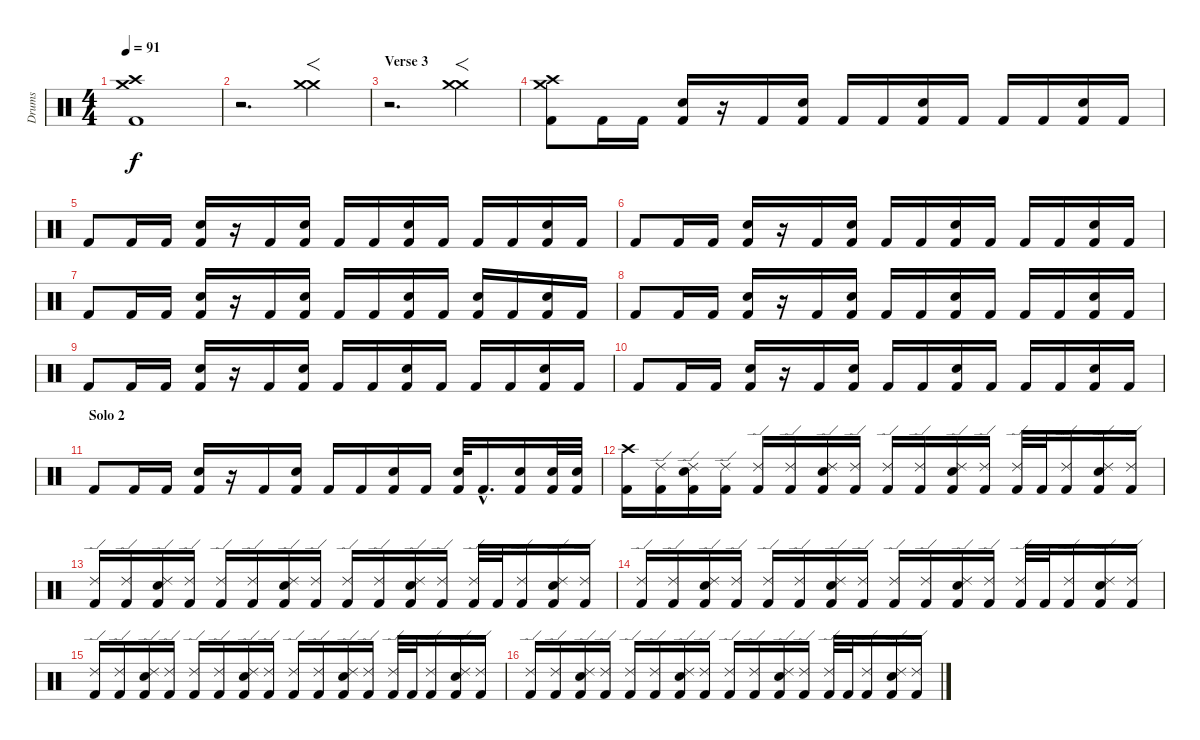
\track ("Drums" "Drums") {instrument percussion}
\staff {score}
\articulation defaults
\ts (4 4)
\tempo 91
\clef neutral
\ks c
("Crash medium (hit)" "Crash high (hit)" "Kick (hit) 2").1{dy f} |
r.2{d} ("Crash medium (hit)" "Crash medium (hit)").4{f} |
\section ("" "Verse 3")
r.2{d} ("Crash medium (hit)" "Crash medium (hit)").4{f} |
("Crash medium (hit)" "Crash high (hit)" "Kick (hit) 2").8 "Kick (hit) 2".16 "Kick (hit) 2".16 ("Snare (hit) 2" "Kick (hit) 2").16 r.16 "Kick (hit) 2".16 ("Snare (hit) 2" "Kick (hit) 2").16 "Kick (hit) 2".16 "Kick (hit) 2".16 ("Snare (hit) 2" "Kick (hit) 2").16 "Kick (hit) 2".16 "Kick (hit) 2".16 "Kick (hit) 2".16 ("Snare (hit) 2" "Kick (hit) 2").16 "Kick (hit) 2".16 |
"Kick (hit) 2".8 "Kick (hit) 2".16 "Kick (hit) 2".16 ("Snare (hit) 2" "Kick (hit) 2").16 r.16 "Kick (hit) 2".16 ("Snare (hit) 2" "Kick (hit) 2").16 "Kick (hit) 2".16 "Kick (hit) 2".16 ("Snare (hit) 2" "Kick (hit) 2").16 "Kick (hit) 2".16 "Kick (hit) 2".16 "Kick (hit) 2".16 ("Snare (hit) 2" "Kick (hit) 2").16 "Kick (hit) 2".16 |
"Kick (hit) 2".8 "Kick (hit) 2".16 "Kick (hit) 2".16 ("Snare (hit) 2" "Kick (hit) 2").16 r.16 "Kick (hit) 2".16 ("Snare (hit) 2" "Kick (hit) 2").16 "Kick (hit) 2".16 "Kick (hit) 2".16 ("Snare (hit) 2" "Kick (hit) 2").16 "Kick (hit) 2".16 "Kick (hit) 2".16 "Kick (hit) 2".16 ("Snare (hit) 2" "Kick (hit) 2").16 "Kick (hit) 2".16 |
"Kick (hit) 2".8 "Kick (hit) 2".16 "Kick (hit) 2".16 ("Snare (hit) 2" "Kick (hit) 2").16 r.16 "Kick (hit) 2".16 ("Snare (hit) 2" "Kick (hit) 2").16 "Kick (hit) 2".16 "Kick (hit) 2".16 ("Snare (hit) 2" "Kick (hit) 2").16 "Kick (hit) 2".16 ("Snare (hit) 2" "Kick (hit) 2").16 "Kick (hit) 2".16 ("Snare (hit) 2" "Kick (hit) 2").16 "Kick (hit) 2".16 |
"Kick (hit) 2".8 "Kick (hit) 2".16 "Kick (hit) 2".16 ("Snare (hit) 2" "Kick (hit) 2").16 r.16 "Kick (hit) 2".16 ("Snare (hit) 2" "Kick (hit) 2").16 "Kick (hit) 2".16 "Kick (hit) 2".16 ("Snare (hit) 2" "Kick (hit) 2").16 "Kick (hit) 2".16 "Kick (hit) 2".16 "Kick (hit) 2".16 ("Snare (hit) 2" "Kick (hit) 2").16 "Kick (hit) 2".16 |
"Kick (hit) 2".8 "Kick (hit) 2".16 "Kick (hit) 2".16 ("Snare (hit) 2" "Kick (hit) 2").16 r.16 "Kick (hit) 2".16 ("Snare (hit) 2" "Kick (hit) 2").16 "Kick (hit) 2".16 "Kick (hit) 2".16 ("Snare (hit) 2" "Kick (hit) 2").16 "Kick (hit) 2".16 "Kick (hit) 2".16 "Kick (hit) 2".16 ("Snare (hit) 2" "Kick (hit) 2").16 "Kick (hit) 2".16 |
"Kick (hit) 2".8 "Kick (hit) 2".16 "Kick (hit) 2".16 ("Snare (hit) 2" "Kick (hit) 2").16 r.16 "Kick (hit) 2".16 ("Snare (hit) 2" "Kick (hit) 2").16 "Kick (hit) 2".16 "Kick (hit) 2".16 ("Snare (hit) 2" "Kick (hit) 2").16 "Kick (hit) 2".16 "Kick (hit) 2".16 "Kick (hit) 2".16 ("Snare (hit) 2" "Kick (hit) 2").16 "Kick (hit) 2".16 |
\section ("" "Solo 2")
"Kick (hit) 2".8 "Kick (hit) 2".16 "Kick (hit) 2".16 ("Snare (hit) 2" "Kick (hit) 2").16 r.16 "Kick (hit) 2".16 ("Snare (hit) 2" "Kick (hit) 2").16 "Kick (hit) 2".16 "Kick (hit) 2".16 ("Snare (hit) 2" "Kick (hit) 2").16 "Kick (hit) 2".16 ("Snare (hit) 2" "Kick (hit) 2").32 "Kick (hit) 2"{hac}.16{d} ("Snare (hit) 2" "Kick (hit) 2").16 ("Snare (hit) 2" "Kick (hit) 2").32 ("Snare (hit) 2" "Kick (hit) 2").32 |
("Crash high (hit)" "Kick (hit) 2").16 ("Ride (edge) 2" "Kick (hit) 2").16 ("Ride (edge) 2" "Snare (hit) 2" "Kick (hit) 2").16 ("Ride (edge) 2" "Kick (hit) 2").16 ("Ride (edge) 2" "Kick (hit) 2").16 ("Ride (edge) 2" "Kick (hit) 2").16 ("Ride (edge) 2" "Snare (hit) 2" "Kick (hit) 2").16 ("Ride (edge) 2" "Kick (hit) 2").16 ("Ride (edge) 2" "Kick (hit) 2").16 ("Ride (edge) 2" "Kick (hit) 2").16 ("Ride (edge) 2" "Snare (hit) 2" "Kick (hit) 2").16 ("Ride (edge) 2" "Kick (hit) 2").16 ("Ride (edge) 2" "Kick (hit) 2").32 "Kick (hit) 2".32 ("Ride (edge) 2" "Kick (hit) 2").16 ("Ride (edge) 2" "Snare (hit) 2" "Kick (hit) 2").16 ("Ride (edge) 2" "Kick (hit) 2").16 |
("Ride (edge) 2" "Kick (hit) 2").16 ("Ride (edge) 2" "Kick (hit) 2").16 ("Ride (edge) 2" "Snare (hit) 2" "Kick (hit) 2").16 ("Ride (edge) 2" "Kick (hit) 2").16 ("Ride (edge) 2" "Kick (hit) 2").16 ("Ride (edge) 2" "Kick (hit) 2").16 ("Ride (edge) 2" "Snare (hit) 2" "Kick (hit) 2").16 ("Ride (edge) 2" "Kick (hit) 2").16 ("Ride (edge) 2" "Kick (hit) 2").16 ("Ride (edge) 2" "Kick (hit) 2").16 ("Ride (edge) 2" "Snare (hit) 2" "Kick (hit) 2").16 ("Ride (edge) 2" "Kick (hit) 2").16 ("Ride (edge) 2" "Kick (hit) 2").32 "Kick (hit) 2".32 ("Ride (edge) 2" "Kick (hit) 2").16 ("Ride (edge) 2" "Snare (hit) 2" "Kick (hit) 2").16 ("Ride (edge) 2" "Kick (hit) 2").16 |
("Ride (edge) 2" "Kick (hit) 2").16 ("Ride (edge) 2" "Kick (hit) 2").16 ("Ride (edge) 2" "Snare (hit) 2" "Kick (hit) 2").16 ("Ride (edge) 2" "Kick (hit) 2").16 ("Ride (edge) 2" "Kick (hit) 2").16 ("Ride (edge) 2" "Kick (hit) 2").16 ("Ride (edge) 2" "Snare (hit) 2" "Kick (hit) 2").16 ("Ride (edge) 2" "Kick (hit) 2").16 ("Ride (edge) 2" "Kick (hit) 2").16 ("Ride (edge) 2" "Kick (hit) 2").16 ("Ride (edge) 2" "Snare (hit) 2" "Kick (hit) 2").16 ("Ride (edge) 2" "Kick (hit) 2").16 ("Ride (edge) 2" "Kick (hit) 2").32 "Kick (hit) 2".32 ("Ride (edge) 2" "Kick (hit) 2").16 ("Ride (edge) 2" "Snare (hit) 2" "Kick (hit) 2").16 ("Ride (edge) 2" "Kick (hit) 2").16 |
("Ride (edge) 2" "Kick (hit) 2").16 ("Ride (edge) 2" "Kick (hit) 2").16 ("Ride (edge) 2" "Snare (hit) 2" "Kick (hit) 2").16 ("Ride (edge) 2" "Kick (hit) 2").16 ("Ride (edge) 2" "Kick (hit) 2").16 ("Ride (edge) 2" "Kick (hit) 2").16 ("Ride (edge) 2" "Snare (hit) 2" "Kick (hit) 2").16 ("Ride (edge) 2" "Kick (hit) 2").16 ("Ride (edge) 2" "Kick (hit) 2").16 ("Ride (edge) 2" "Kick (hit) 2").16 ("Ride (edge) 2" "Snare (hit) 2" "Kick (hit) 2").16 ("Ride (edge) 2" "Kick (hit) 2").16 ("Ride (edge) 2" "Kick (hit) 2").32 "Kick (hit) 2".32 ("Ride (edge) 2" "Kick (hit) 2").16 ("Ride (edge) 2" "Snare (hit) 2" "Kick (hit) 2").16 ("Ride (edge) 2" "Kick (hit) 2").16 |
("Ride (edge) 2" "Kick (hit) 2").16 ("Ride (edge) 2" "Kick (hit) 2").16 ("Ride (edge) 2" "Snare (hit) 2" "Kick (hit) 2").16 ("Ride (edge) 2" "Kick (hit) 2").16 ("Ride (edge) 2" "Kick (hit) 2").16 ("Ride (edge) 2" "Kick (hit) 2").16 ("Ride (edge) 2" "Snare (hit) 2" "Kick (hit) 2").16 ("Ride (edge) 2" "Kick (hit) 2").16 ("Ride (edge) 2" "Kick (hit) 2").16 ("Ride (edge) 2" "Kick (hit) 2").16 ("Ride (edge) 2" "Snare (hit) 2" "Kick (hit) 2").16 ("Ride (edge) 2" "Kick (hit) 2").16 ("Ride (edge) 2" "Kick (hit) 2").32 "Kick (hit) 2".32 ("Ride (edge) 2" "Kick (hit) 2").16 ("Ride (edge) 2" "Snare (hit) 2" "Kick (hit) 2").16 ("Ride (edge) 2" "Kick (hit) 2").16
